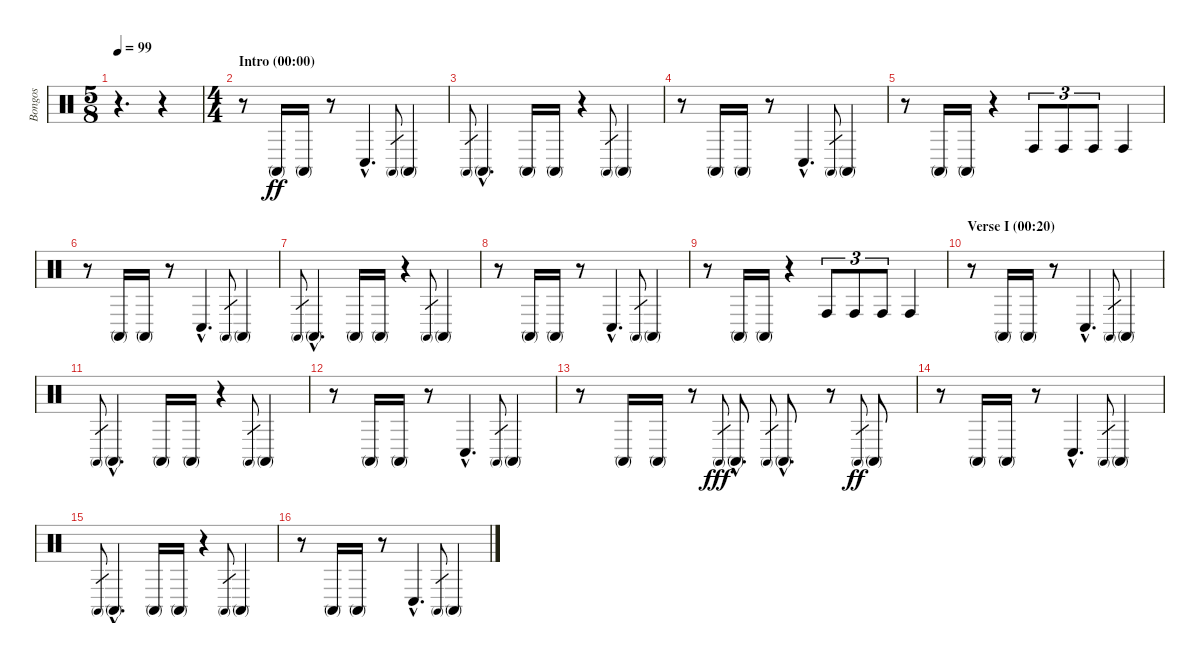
\track ("Bongos" "Bongos") {instrument percussion}
\staff {score}
\articulation defaults
\ts (5 8)
\tempo 99
\clef neutral
\ks c
r.4{d dy ff} r.4 |
\ts (4 4)
\section ("" "Intro (00:00)")
r.8 "Conga high (mute)".16 "Conga high (mute)".16 r.8 "Conga low (hit)"{hac}.4{d} "Conga high (mute)".8{gr} "Conga high (mute)".4 |
"Conga high (mute)".8{gr} "Conga high (mute)"{hac}.4{d} "Conga high (mute)".16 "Conga high (mute)".16 r.4 "Conga high (mute)".8{gr} "Conga high (mute)".4 |
r.8 "Conga high (mute)".16 "Conga high (mute)".16 r.8 "Conga low (hit)"{hac}.4{d} "Conga high (mute)".8{gr} "Conga high (mute)".4 |
r.8 "Conga high (mute)".16 "Conga high (mute)".16 r.4 "Conga high (hit)".8{tu (3 2)} "Conga high (hit)".8{tu (3 2)} "Conga high (hit)".8{tu (3 2)} "Conga high (hit)".4 |
r.8 "Conga high (mute)".16 "Conga high (mute)".16 r.8 "Conga low (hit)"{hac}.4{d} "Conga high (mute)".8{gr} "Conga high (mute)".4 |
"Conga high (mute)".8{gr} "Conga high (mute)"{hac}.4{d} "Conga high (mute)".16 "Conga high (mute)".16 r.4 "Conga high (mute)".8{gr} "Conga high (mute)".4 |
r.8 "Conga high (mute)".16 "Conga high (mute)".16 r.8 "Conga low (hit)"{hac}.4{d} "Conga high (mute)".8{gr} "Conga high (mute)".4 |
r.8 "Conga high (mute)".16 "Conga high (mute)".16 r.4 "Conga high (hit)".8{tu (3 2)} "Conga high (hit)".8{tu (3 2)} "Conga high (hit)".8{tu (3 2)} "Conga high (hit)".4 |
\section ("" "Verse I (00:20)")
r.8 "Conga high (mute)".16 "Conga high (mute)".16 r.8 "Conga low (hit)"{hac}.4{d} "Conga high (mute)".8{gr} "Conga high (mute)".4 |
"Conga high (mute)".8{gr} "Conga high (mute)"{hac}.4{d} "Conga high (mute)".16 "Conga high (mute)".16 r.4 "Conga high (mute)".8{gr} "Conga high (mute)".4 |
r.8 "Conga high (mute)".16 "Conga high (mute)".16 r.8 "Conga low (hit)"{hac}.4{d} "Conga high (mute)".8{gr} "Conga high (mute)".4 |
r.8 "Conga high (mute)".16 "Conga high (mute)".16 r.8 "Conga high (mute)".8{gr dy fff} "Conga high (mute)"{hac}.8{d} "Conga high (mute)".8{gr} "Conga high (mute)"{hac}.8{d} r.8 "Conga high (mute)".8{gr dy ff} "Conga high (mute)".8 |
r.8 "Conga high (mute)".16 "Conga high (mute)".16 r.8 "Conga low (hit)"{hac}.4{d} "Conga high (mute)".8{gr} "Conga high (mute)".4 |
"Conga high (mute)".8{gr} "Conga high (mute)"{hac}.4{d} "Conga high (mute)".16 "Conga high (mute)".16 r.4 "Conga high (mute)".8{gr} "Conga high (mute)".4 |
r.8 "Conga high (mute)".16 "Conga high (mute)".16 r.8 "Conga low (hit)"{hac}.4{d} "Conga high (mute)".8{gr} "Conga high (mute)".4
